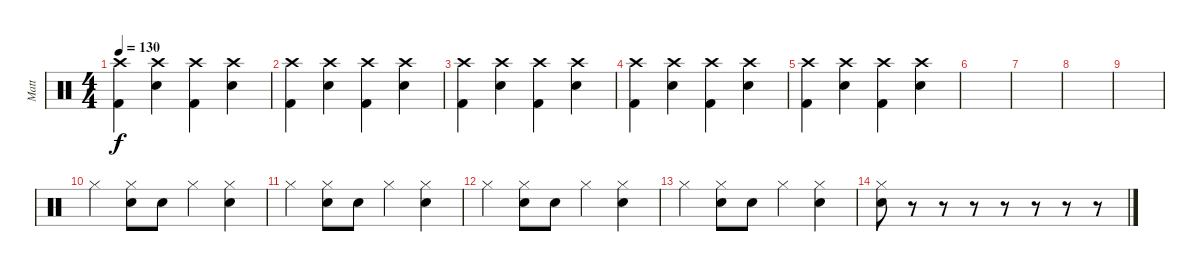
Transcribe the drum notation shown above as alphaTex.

\track ("Matt" "Matt") {instrument percussion}
\staff {score}
\articulation defaults
\ts (4 4)
\tempo 130
\clef neutral
\ks c
("Crash high (hit)" "Kick (hit) 2").4{dy f} ("Crash high (hit)" "Snare (hit) 2").4 ("Crash high (hit)" "Kick (hit) 2").4 ("Crash high (hit)" "Snare (hit) 2").4 |
("Crash high (hit)" "Kick (hit) 2").4 ("Crash high (hit)" "Snare (hit) 2").4 ("Crash high (hit)" "Kick (hit) 2").4 ("Crash high (hit)" "Snare (hit) 2").4 |
("Crash high (hit)" "Kick (hit) 2").4 ("Crash high (hit)" "Snare (hit) 2").4 ("Crash high (hit)" "Kick (hit) 2").4 ("Crash high (hit)" "Snare (hit) 2").4 |
("Crash high (hit)" "Kick (hit) 2").4 ("Crash high (hit)" "Snare (hit) 2").4 ("Crash high (hit)" "Kick (hit) 2").4 ("Crash high (hit)" "Snare (hit) 2").4 |
("Crash high (hit)" "Kick (hit) 2").4 ("Crash high (hit)" "Snare (hit) 2").4 ("Crash high (hit)" "Kick (hit) 2").4 ("Crash high (hit)" "Snare (hit) 2").4 |
|
|
|
|
"Hi-Hat (closed)".4 ("Hi-Hat (closed)" "Snare (hit) 2").8 "Snare (hit) 2".8 "Hi-Hat (closed)".4 ("Hi-Hat (closed)" "Snare (hit) 2").4 |
"Hi-Hat (closed)".4 ("Hi-Hat (closed)" "Snare (hit) 2").8 "Snare (hit) 2".8 "Hi-Hat (closed)".4 ("Hi-Hat (closed)" "Snare (hit) 2").4 |
"Hi-Hat (closed)".4 ("Hi-Hat (closed)" "Snare (hit) 2").8 "Snare (hit) 2".8 "Hi-Hat (closed)".4 ("Hi-Hat (closed)" "Snare (hit) 2").4 |
"Hi-Hat (closed)".4 ("Hi-Hat (closed)" "Snare (hit) 2").8 "Snare (hit) 2".8 "Hi-Hat (closed)".4 ("Hi-Hat (closed)" "Snare (hit) 2").4 |
("Hi-Hat (closed)" "Snare (hit) 2").8 r.8 r.8 r.8 r.8 r.8 r.8 r.8
